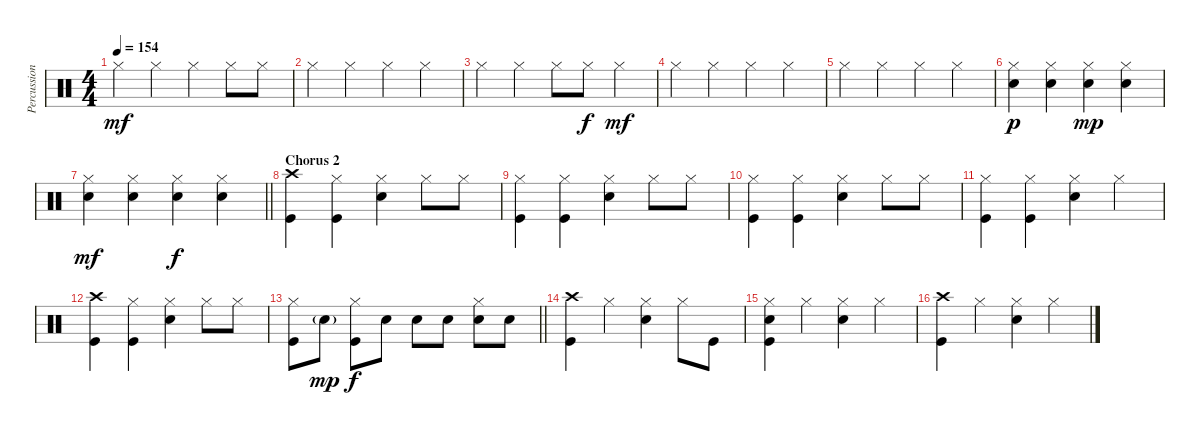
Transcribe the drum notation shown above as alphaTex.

\track ("Percussion" "Percussion") {instrument percussion}
\staff {score}
\articulation defaults
\ts (4 4)
\tempo 154
\clef neutral
\ks c "Hi-Hat (closed)".4{dy mf} "Hi-Hat (closed)".4 "Hi-Hat (closed)".4 "Hi-Hat (closed)".8 "Hi-Hat (closed)".8
|
"Hi-Hat (closed)".4 "Hi-Hat (closed)".4 "Hi-Hat (closed)".4 "Hi-Hat (closed)".4 |
"Hi-Hat (closed)".4 "Hi-Hat (closed)".4 "Hi-Hat (closed)".8 "Hi-Hat (closed)".8{dy f} "Hi-Hat (closed)".4{dy mf} |
"Hi-Hat (closed)".4 "Hi-Hat (closed)".4 "Hi-Hat (closed)".4 "Hi-Hat (closed)".4 |
"Hi-Hat (closed)".4 "Hi-Hat (closed)".4 "Hi-Hat (closed)".4 "Hi-Hat (closed)".4 |
("Hi-Hat (closed)" "Snare (hit) 2").4{dy p} ("Hi-Hat (closed)" "Snare (hit) 2").4 ("Hi-Hat (closed)" "Snare (hit) 2").4{dy mp} ("Hi-Hat (closed)" "Snare (hit) 2").4 |
\barLineRight lightlight
("Hi-Hat (closed)" "Snare (hit) 2").4{dy mf} ("Hi-Hat (closed)" "Snare (hit) 2").4 ("Hi-Hat (closed)" "Snare (hit) 2").4{dy f} ("Hi-Hat (closed)" "Snare (hit) 2").4 |
\section ("" "Chorus 2")
("Crash high (hit)" "Kick (hit)").4 ("Hi-Hat (closed)" "Kick (hit)").4 ("Hi-Hat (closed)" "Snare (hit) 2").4 "Hi-Hat (closed)".8 "Hi-Hat (closed)".8 |
("Hi-Hat (closed)" "Kick (hit)").4 ("Hi-Hat (closed)" "Kick (hit)").4 ("Hi-Hat (closed)" "Snare (hit) 2").4 "Hi-Hat (closed)".8 "Hi-Hat (closed)".8 |
("Hi-Hat (closed)" "Kick (hit)").4 ("Hi-Hat (closed)" "Kick (hit)").4 ("Hi-Hat (closed)" "Snare (hit) 2").4 "Hi-Hat (closed)".8 "Hi-Hat (closed)".8 |
("Hi-Hat (closed)" "Kick (hit)").4 ("Hi-Hat (closed)" "Kick (hit)").4 ("Hi-Hat (closed)" "Snare (hit) 2").4 "Hi-Hat (closed)".4 |
("Crash high (hit)" "Kick (hit)").4 ("Hi-Hat (closed)" "Kick (hit)").4 ("Hi-Hat (closed)" "Snare (hit) 2").4 "Hi-Hat (closed)".8 "Hi-Hat (closed)".8 |
\barLineRight lightlight
("Hi-Hat (closed)" "Kick (hit)").8 "Snare (hit) 2"{g}.8{dy mp} ("Hi-Hat (closed)" "Kick (hit)").8{dy f} "Snare (hit) 2".8 "Snare (hit) 2".8 "Electric Snare (hit)".8 ("Hi-Hat (closed)" "Electric Snare (hit)").8 "Snare (hit) 2".8 |
("Crash high (hit)" "Kick (hit)").4 "Hi-Hat (closed)".4 ("Hi-Hat (closed)" "Snare (hit) 2").4 "Hi-Hat (closed)".8 "Kick (hit)".8 |
("Hi-Hat (closed)" "Snare (hit) 2" "Kick (hit)").4 "Hi-Hat (closed)".4 ("Hi-Hat (closed)" "Snare (hit) 2").4 "Hi-Hat (closed)".4 |
("Crash high (hit)" "Kick (hit)").4 "Hi-Hat (closed)".4 ("Hi-Hat (closed)" "Snare (hit) 2").4 "Hi-Hat (closed)".4
